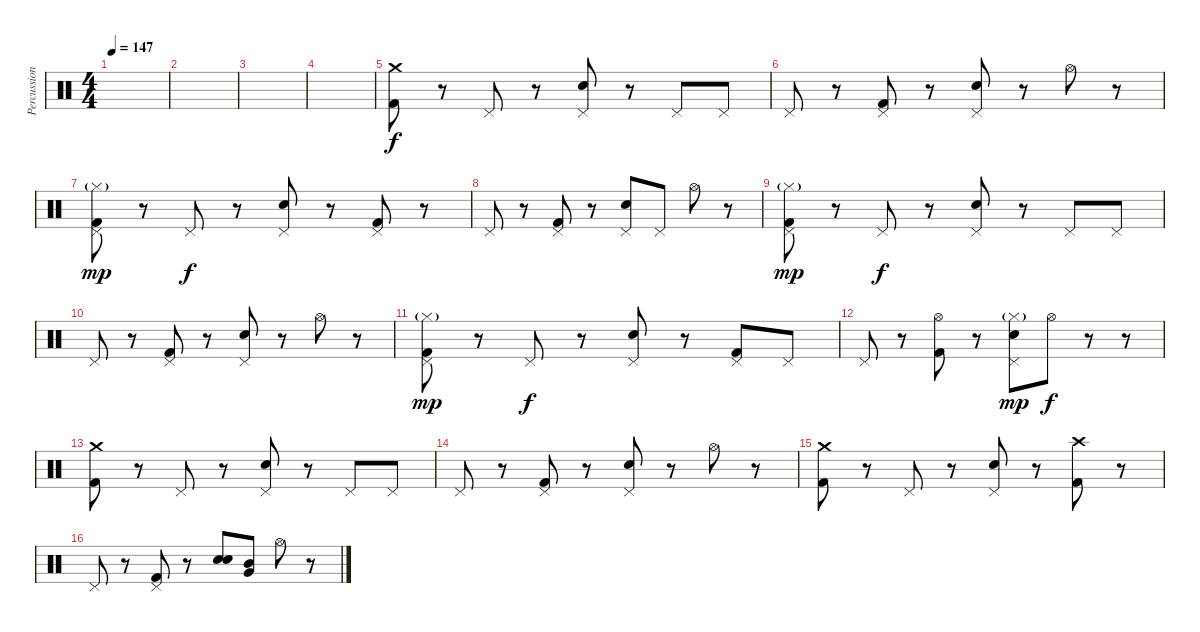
\track ("Percussion" "Percussion") {instrument percussion}
\staff {score}
\articulation defaults
\ts (4 4)
\tempo 147
\clef neutral
\ks c
|
|
|
|
("Kick (hit) 2" "Crash medium (hit)").8 r.8 "Pedal Hi-Hat (hit)".8 r.8 ("Electric Snare (hit)" "Pedal Hi-Hat (hit)").8 r.8 "Pedal Hi-Hat (hit)".8 "Pedal Hi-Hat (hit)".8 |
"Pedal Hi-Hat (hit)".8 r.8 ("Kick (hit) 2" "Pedal Hi-Hat (hit)").8 r.8 ("Electric Snare (hit)" "Pedal Hi-Hat (hit)").8 r.8 "Hi-Hat (open)".8 r.8 |
("Kick (hit) 2" "Hi-Hat (closed)"{g} "Pedal Hi-Hat (hit)").8{dy mp} r.8 "Pedal Hi-Hat (hit)".8{dy f} r.8 ("Electric Snare (hit)" "Pedal Hi-Hat (hit)").8 r.8 ("Kick (hit) 2" "Pedal Hi-Hat (hit)").8 r.8 |
"Pedal Hi-Hat (hit)".8 r.8 ("Kick (hit) 2" "Pedal Hi-Hat (hit)").8 r.8 ("Electric Snare (hit)" "Pedal Hi-Hat (hit)").8 "Pedal Hi-Hat (hit)".8 "Hi-Hat (open)".8 r.8 |
("Kick (hit) 2" "Hi-Hat (closed)"{g} "Pedal Hi-Hat (hit)").8{dy mp} r.8 "Pedal Hi-Hat (hit)".8{dy f} r.8 ("Electric Snare (hit)" "Pedal Hi-Hat (hit)").8 r.8 "Pedal Hi-Hat (hit)".8 "Pedal Hi-Hat (hit)".8 |
"Pedal Hi-Hat (hit)".8 r.8 ("Kick (hit) 2" "Pedal Hi-Hat (hit)").8 r.8 ("Electric Snare (hit)" "Pedal Hi-Hat (hit)").8 r.8 "Hi-Hat (open)".8 r.8 |
("Kick (hit) 2" "Hi-Hat (closed)"{g} "Pedal Hi-Hat (hit)").8{dy mp} r.8 "Pedal Hi-Hat (hit)".8{dy f} r.8 ("Electric Snare (hit)" "Pedal Hi-Hat (hit)").8 r.8 ("Kick (hit) 2" "Pedal Hi-Hat (hit)").8 "Pedal Hi-Hat (hit)".8 |
"Pedal Hi-Hat (hit)".8 r.8 ("Kick (hit) 2" "Hi-Hat (open)").8 r.8 ("Hi-Hat (closed)"{g} "Electric Snare (hit)" "Pedal Hi-Hat (hit)").8{dy mp} "Hi-Hat (open)".8{dy f} r.8 r.8 |
("Kick (hit) 2" "Crash medium (hit)").8 r.8 "Pedal Hi-Hat (hit)".8 r.8 ("Electric Snare (hit)" "Pedal Hi-Hat (hit)").8 r.8 "Pedal Hi-Hat (hit)".8 "Pedal Hi-Hat (hit)".8 |
"Pedal Hi-Hat (hit)".8 r.8 ("Kick (hit) 2" "Pedal Hi-Hat (hit)").8 r.8 ("Electric Snare (hit)" "Pedal Hi-Hat (hit)").8 r.8 "Hi-Hat (open)".8 r.8 |
("Kick (hit) 2" "Crash medium (hit)").8 r.8 "Pedal Hi-Hat (hit)".8 r.8 ("Electric Snare (hit)" "Pedal Hi-Hat (hit)").8 r.8 ("Kick (hit) 2" "Crash high (hit)").8 r.8 |
"Pedal Hi-Hat (hit)".8 r.8 ("Kick (hit) 2" "Pedal Hi-Hat (hit)").8 r.8 ("Electric Snare (hit)" "Electric Snare (hit)").8 ("Very Low Tom (hit)" "Mid Tom (hit)").8 "Hi-Hat (open)".8 r.8
